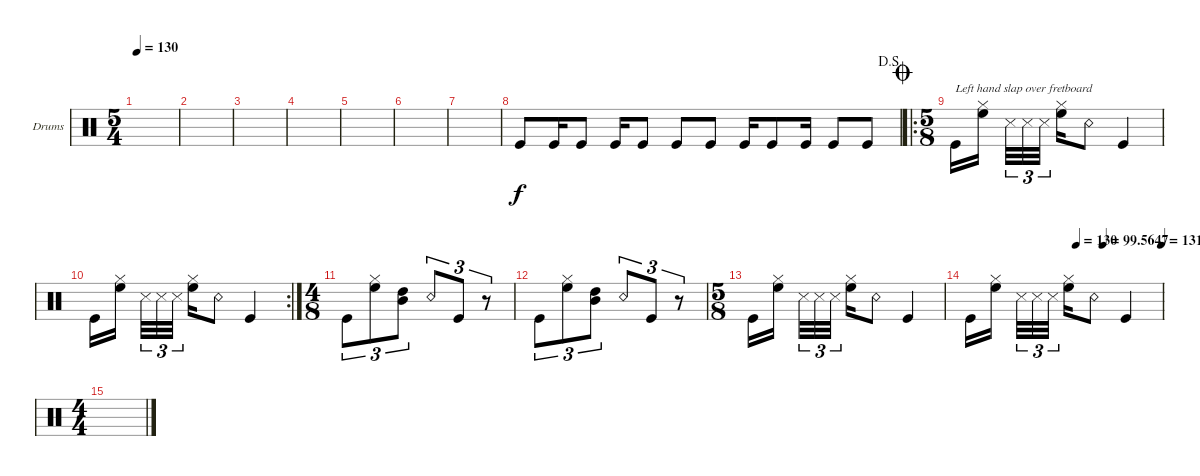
\defaultSystemsLayout 4
\bracketExtendMode groupsimilarinstruments
\firstSystemTrackNameOrientation horizontal
\otherSystemsTrackNameOrientation horizontal
\track ("Drumkit" "Drums") {instrument percussion}
\staff {score}
\articulation defaults
\ts (5 4)
\scale
0.451594
\tempo 130
\accidentals auto
\clef neutral
\ottava regular
\simile none
\ks c
|
\scale
0.548631 |
\scale
0.515894 |
\scale
0.483763 |
|
|
|
\jump dalsegno "Kick (hit)".8 "Kick (hit)".16 "Kick (hit)".8 "Kick (hit)".16 "Kick (hit)".8 "Kick (hit)".8 "Kick (hit)".8 "Kick (hit)".16 "Kick (hit)".8 "Kick (hit)".16 "Kick (hit)".8 "Kick (hit)".8
|
\ro
\ts (5 8)
\jump coda "Kick (hit)".16{txt "Left hand slap over fretboard"}
("High Floor Tom (hit)" "Hi-Hat (closed)").16 "Snare (side stick) 3".32{tu (3 2)} "Snare (side stick) 3".32{tu (3 2)} "Snare (side stick) 3".32{tu (3 2)} ("High Floor Tom (hit)" "Hi-Hat (closed)").16 "Snare (rim shot)".8 "Kick (hit)".4 |
\rc 2 "Kick (hit)".16
("High Floor Tom (hit)" "Hi-Hat (closed)").16 "Snare (side stick) 3".32{tu (3 2)} "Snare (side stick) 3".32{tu (3 2)} "Snare (side stick) 3".32{tu (3 2)} ("High Floor Tom (hit)" "Hi-Hat (closed)").16 "Snare (rim shot)".8 "Kick (hit)".4 |
\ts (4 8)
\scale
0.287544 "Kick (hit)".8{tu (3 2)} ("High Floor Tom (hit)" "Hi-Hat (closed)").8{tu (3 2)} ("Mid Tom (hit)" "High Tom (hit)").8{tu (3 2)} "Snare (rim shot)".8{tu (3 2)} "Kick (hit)".8{tu (3 2)} r.8{tu (3 2)} |
\scale
0.2475 "Kick (hit)".8{tu (3 2)} ("High Floor Tom (hit)" "Hi-Hat (closed)").8{tu (3 2)} ("Mid Tom (hit)" "High Tom (hit)").8{tu (3 2)} "Snare (rim shot)".8{tu (3 2)} "Kick (hit)".8{tu (3 2)} r.8{tu (3 2)} |
\ts (5 8)
\scale
0.465016 "Kick (hit)".16 ("High Floor Tom (hit)" "Hi-Hat (closed)").16 "Snare (side stick) 3".32{tu (3 2)} "Snare (side stick) 3".32{tu (3 2)} "Snare (side stick) 3".32{tu (3 2)} ("High Floor Tom (hit)" "Hi-Hat (closed)").16 "Snare (rim shot)".8 "Kick (hit)".4 |
\tempo (130 0.55625)
\tempo (99.5647 0.695652)
\tempo (131.529 1)
"Kick (hit)".16 ("High Floor Tom (hit)" "Hi-Hat (closed)").16 "Snare (side stick) 3".32{tu (3 2)} "Snare (side stick) 3".32{tu (3 2)} "Snare (side stick) 3".32{tu (3 2)} ("High Floor Tom (hit)" "Hi-Hat (closed)").16 "Snare (rim shot)".8 "Kick (hit)".4 |
\ts (4 4)
